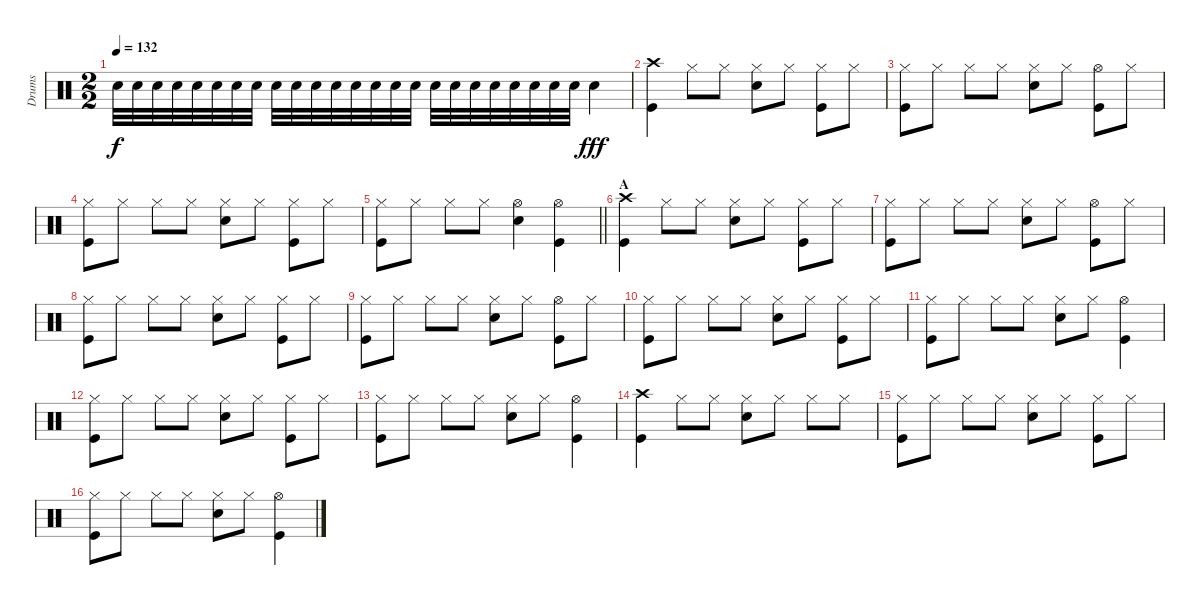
\track ("Drums" "Drums") {instrument percussion}
\staff {score}
\articulation defaults
\ts (2 2)
\tempo 132
\clef neutral
\ks c "Snare (hit) 2".32{dy f} "Snare (hit) 2".32 "Snare (hit) 2".32 "Snare (hit) 2".32 "Snare (hit) 2".32 "Snare (hit) 2".32 "Snare (hit) 2".32 "Snare (hit) 2".32 "Snare (hit) 2".32 "Snare (hit) 2".32 "Snare (hit) 2".32 "Snare (hit) 2".32 "Snare (hit) 2".32 "Snare (hit) 2".32 "Snare (hit) 2".32 "Snare (hit) 2".32 "Snare (hit) 2".32 "Snare (hit) 2".32 "Snare (hit) 2".32 "Snare (hit) 2".32 "Snare (hit) 2".32 "Snare (hit) 2".32 "Snare (hit) 2".32 "Snare (hit) 2".32 "Snare (hit) 2".4{dy fff}
|
("Crash high (hit)" "Kick (hit)").4 "Hi-Hat (closed)".8 "Hi-Hat (closed)".8 ("Hi-Hat (closed)" "Snare (hit) 2").8 "Hi-Hat (closed)".8 ("Hi-Hat (closed)" "Kick (hit)").8 "Hi-Hat (closed)".8 |
("Hi-Hat (closed)" "Kick (hit)").8 "Hi-Hat (closed)".8 "Hi-Hat (closed)".8 "Hi-Hat (closed)".8 ("Hi-Hat (closed)" "Snare (hit) 2").8 "Hi-Hat (closed)".8 ("Hi-Hat (open)" "Kick (hit)").8 "Hi-Hat (closed)".8 |
("Hi-Hat (closed)" "Kick (hit)").8 "Hi-Hat (closed)".8 "Hi-Hat (closed)".8 "Hi-Hat (closed)".8 ("Hi-Hat (closed)" "Snare (hit) 2").8 "Hi-Hat (closed)".8 ("Hi-Hat (closed)" "Kick (hit)").8 "Hi-Hat (closed)".8 |
\barLineRight lightlight
("Hi-Hat (closed)" "Kick (hit)").8 "Hi-Hat (closed)".8 "Hi-Hat (closed)".8 "Hi-Hat (closed)".8 ("Hi-Hat (open)" "Snare (hit) 2").4 ("Hi-Hat (open)" "Kick (hit)").4 |
\section ("" "A")
("Crash high (hit)" "Kick (hit)").4 "Hi-Hat (closed)".8 "Hi-Hat (closed)".8 ("Hi-Hat (closed)" "Snare (hit) 2").8 "Hi-Hat (closed)".8 ("Hi-Hat (closed)" "Kick (hit)").8 "Hi-Hat (closed)".8 |
("Hi-Hat (closed)" "Kick (hit)").8 "Hi-Hat (closed)".8 "Hi-Hat (closed)".8 "Hi-Hat (closed)".8 ("Hi-Hat (closed)" "Snare (hit) 2").8 "Hi-Hat (closed)".8 ("Hi-Hat (open)" "Kick (hit)").8 "Hi-Hat (closed)".8 |
("Hi-Hat (closed)" "Kick (hit)").8 "Hi-Hat (closed)".8 "Hi-Hat (closed)".8 "Hi-Hat (closed)".8 ("Hi-Hat (closed)" "Snare (hit) 2").8 "Hi-Hat (closed)".8 ("Hi-Hat (closed)" "Kick (hit)").8 "Hi-Hat (closed)".8 |
("Hi-Hat (closed)" "Kick (hit)").8 "Hi-Hat (closed)".8 "Hi-Hat (closed)".8 "Hi-Hat (closed)".8 ("Hi-Hat (closed)" "Snare (hit) 2").8 "Hi-Hat (closed)".8 ("Hi-Hat (open)" "Kick (hit)").8 "Hi-Hat (closed)".8 |
("Hi-Hat (closed)" "Kick (hit)").8 "Hi-Hat (closed)".8 "Hi-Hat (closed)".8 "Hi-Hat (closed)".8 ("Hi-Hat (closed)" "Snare (hit) 2").8 "Hi-Hat (closed)".8 ("Hi-Hat (closed)" "Kick (hit)").8 "Hi-Hat (closed)".8 |
("Hi-Hat (closed)" "Kick (hit)").8 "Hi-Hat (closed)".8 "Hi-Hat (closed)".8 "Hi-Hat (closed)".8 ("Hi-Hat (closed)" "Snare (hit) 2").8 "Hi-Hat (closed)".8 ("Hi-Hat (open)" "Kick (hit)").4 |
("Hi-Hat (closed)" "Kick (hit)").8 "Hi-Hat (closed)".8 "Hi-Hat (closed)".8 "Hi-Hat (closed)".8 ("Hi-Hat (closed)" "Snare (hit) 2").8 "Hi-Hat (closed)".8 ("Hi-Hat (closed)" "Kick (hit)").8 "Hi-Hat (closed)".8 |
("Hi-Hat (closed)" "Kick (hit)").8 "Hi-Hat (closed)".8 "Hi-Hat (closed)".8 "Hi-Hat (closed)".8 ("Hi-Hat (closed)" "Snare (hit) 2").8 "Hi-Hat (closed)".8 ("Hi-Hat (open)" "Kick (hit)").4 |
("Crash high (hit)" "Kick (hit)").4 "Hi-Hat (closed)".8 "Hi-Hat (closed)".8 ("Hi-Hat (closed)" "Snare (hit) 2").8 "Hi-Hat (closed)".8 "Hi-Hat (closed)".8 "Hi-Hat (closed)".8 |
("Hi-Hat (closed)" "Kick (hit)").8 "Hi-Hat (closed)".8 "Hi-Hat (closed)".8 "Hi-Hat (closed)".8 ("Hi-Hat (closed)" "Snare (hit) 2").8 "Hi-Hat (closed)".8 ("Hi-Hat (closed)" "Kick (hit)").8 "Hi-Hat (closed)".8 |
("Hi-Hat (closed)" "Kick (hit)").8 "Hi-Hat (closed)".8 "Hi-Hat (closed)".8 "Hi-Hat (closed)".8 ("Hi-Hat (closed)" "Snare (hit) 2").8 "Hi-Hat (closed)".8 ("Hi-Hat (open)" "Kick (hit)").4
